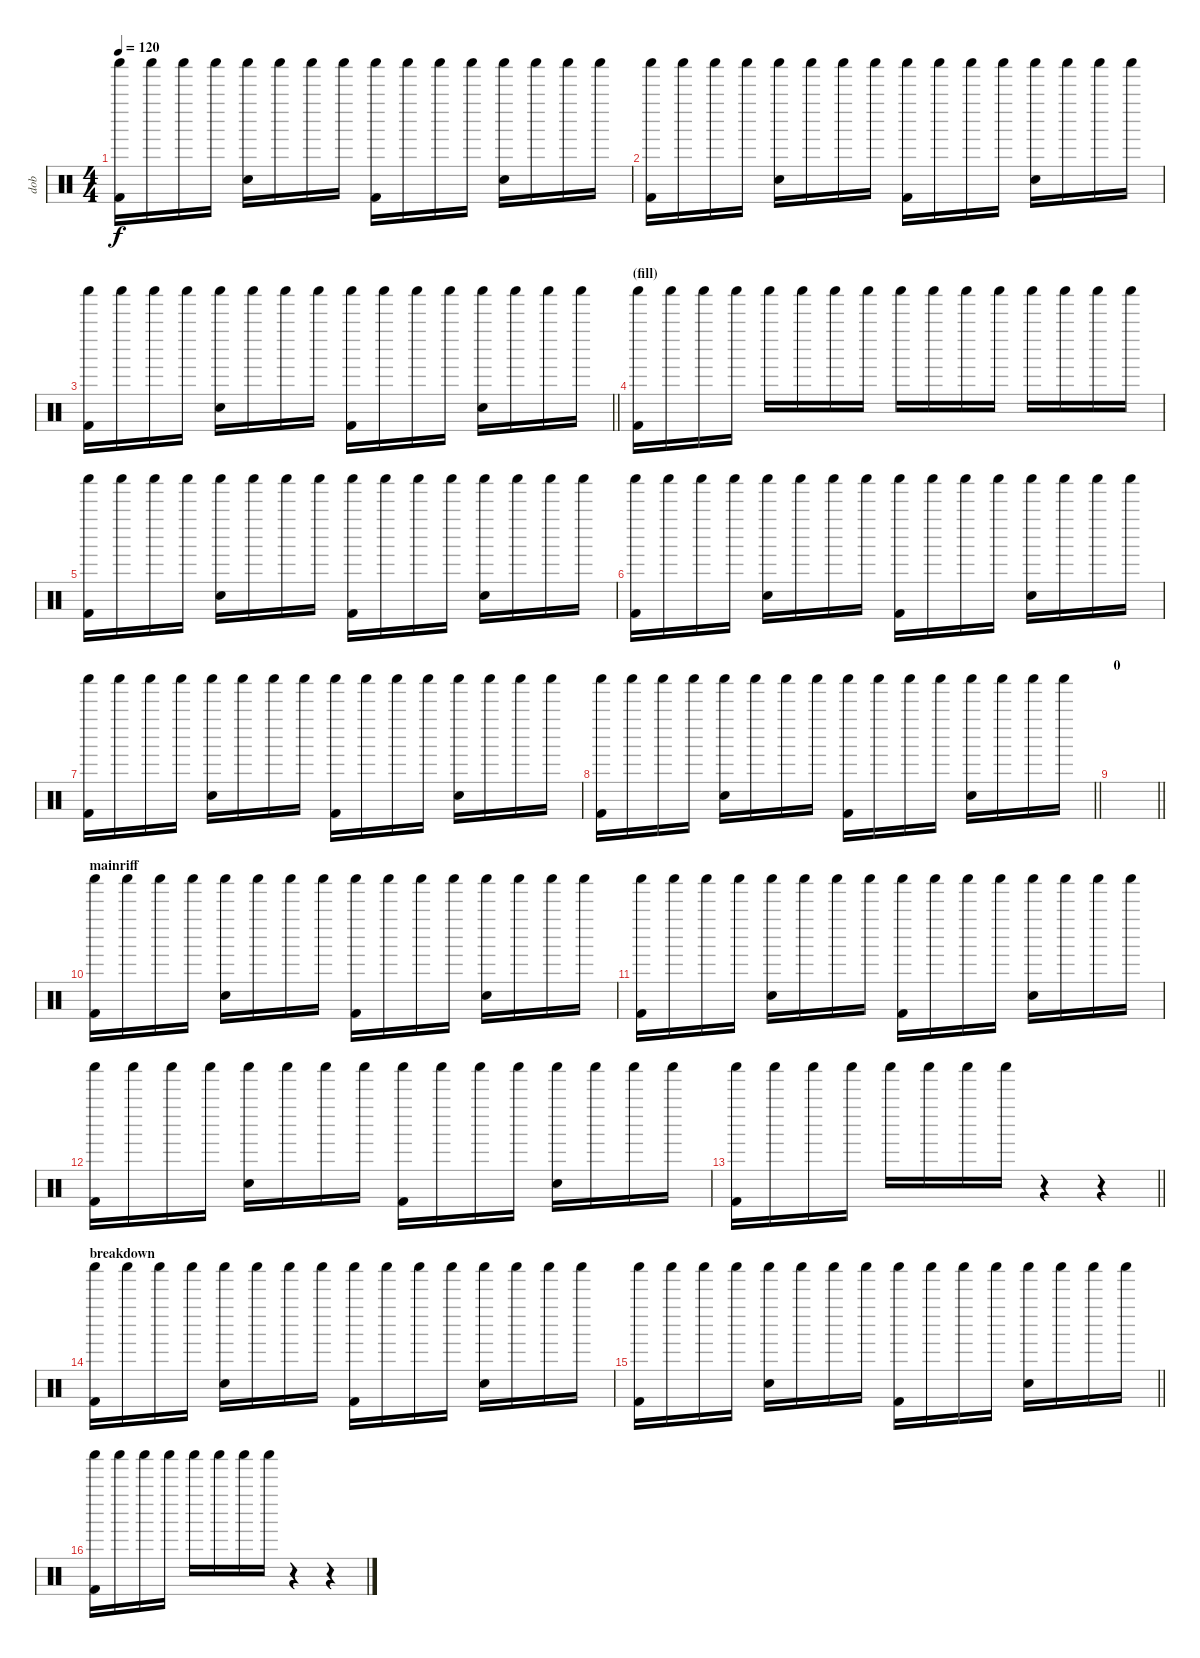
\track ("dob" "dob") {instrument percussion}
\staff {score}
\articulation defaults
\ts (4 4)
\tempo 120
\clef neutral
\ks c
("Kick (hit) 2" "Shaker (hit)").16{dy f} "Shaker (hit)".16 "Shaker (hit)".16 "Shaker (hit)".16 ("Electric Snare (hit)" "Shaker (hit)").16 "Shaker (hit)".16 "Shaker (hit)".16 "Shaker (hit)".16 ("Kick (hit) 2" "Shaker (hit)").16 "Shaker (hit)".16 "Shaker (hit)".16 "Shaker (hit)".16 ("Electric Snare (hit)" "Shaker (hit)").16 "Shaker (hit)".16 "Shaker (hit)".16 "Shaker (hit)".16 |
("Kick (hit) 2" "Shaker (hit)").16 "Shaker (hit)".16 "Shaker (hit)".16 "Shaker (hit)".16 ("Electric Snare (hit)" "Shaker (hit)").16 "Shaker (hit)".16 "Shaker (hit)".16 "Shaker (hit)".16 ("Kick (hit) 2" "Shaker (hit)").16 "Shaker (hit)".16 "Shaker (hit)".16 "Shaker (hit)".16 ("Electric Snare (hit)" "Shaker (hit)").16 "Shaker (hit)".16 "Shaker (hit)".16 "Shaker (hit)".16 |
\barLineRight lightlight
("Kick (hit) 2" "Shaker (hit)").16 "Shaker (hit)".16 "Shaker (hit)".16 "Shaker (hit)".16 ("Electric Snare (hit)" "Shaker (hit)").16 "Shaker (hit)".16 "Shaker (hit)".16 "Shaker (hit)".16 ("Kick (hit) 2" "Shaker (hit)").16 "Shaker (hit)".16 "Shaker (hit)".16 "Shaker (hit)".16 ("Electric Snare (hit)" "Shaker (hit)").16 "Shaker (hit)".16 "Shaker (hit)".16 "Shaker (hit)".16 |
\section ("" "(fill)")
("Kick (hit) 2" "Shaker (hit)").16 "Shaker (hit)".16 "Shaker (hit)".16 "Shaker (hit)".16 "Shaker (hit)".16 "Shaker (hit)".16 "Shaker (hit)".16 "Shaker (hit)".16 "Shaker (hit)".16 "Shaker (hit)".16 "Shaker (hit)".16 "Shaker (hit)".16 "Shaker (hit)".16 "Shaker (hit)".16 "Shaker (hit)".16 "Shaker (hit)".16 |
("Kick (hit) 2" "Shaker (hit)").16 "Shaker (hit)".16 "Shaker (hit)".16 "Shaker (hit)".16 ("Electric Snare (hit)" "Shaker (hit)").16 "Shaker (hit)".16 "Shaker (hit)".16 "Shaker (hit)".16 ("Kick (hit) 2" "Shaker (hit)").16 "Shaker (hit)".16 "Shaker (hit)".16 "Shaker (hit)".16 ("Electric Snare (hit)" "Shaker (hit)").16 "Shaker (hit)".16 "Shaker (hit)".16 "Shaker (hit)".16 |
("Kick (hit) 2" "Shaker (hit)").16 "Shaker (hit)".16 "Shaker (hit)".16 "Shaker (hit)".16 ("Electric Snare (hit)" "Shaker (hit)").16 "Shaker (hit)".16 "Shaker (hit)".16 "Shaker (hit)".16 ("Kick (hit) 2" "Shaker (hit)").16 "Shaker (hit)".16 "Shaker (hit)".16 "Shaker (hit)".16 ("Electric Snare (hit)" "Shaker (hit)").16 "Shaker (hit)".16 "Shaker (hit)".16 "Shaker (hit)".16 |
("Kick (hit) 2" "Shaker (hit)").16 "Shaker (hit)".16 "Shaker (hit)".16 "Shaker (hit)".16 ("Electric Snare (hit)" "Shaker (hit)").16 "Shaker (hit)".16 "Shaker (hit)".16 "Shaker (hit)".16 ("Kick (hit) 2" "Shaker (hit)").16 "Shaker (hit)".16 "Shaker (hit)".16 "Shaker (hit)".16 ("Electric Snare (hit)" "Shaker (hit)").16 "Shaker (hit)".16 "Shaker (hit)".16 "Shaker (hit)".16 |
\barLineRight lightlight
("Kick (hit) 2" "Shaker (hit)").16 "Shaker (hit)".16 "Shaker (hit)".16 "Shaker (hit)".16 ("Electric Snare (hit)" "Shaker (hit)").16 "Shaker (hit)".16 "Shaker (hit)".16 "Shaker (hit)".16 ("Kick (hit) 2" "Shaker (hit)").16 "Shaker (hit)".16 "Shaker (hit)".16 "Shaker (hit)".16 ("Electric Snare (hit)" "Shaker (hit)").16 "Shaker (hit)".16 "Shaker (hit)".16 "Shaker (hit)".16 |
\section ("" "0")
\barLineRight lightlight
|
\section ("" "mainriff")
("Kick (hit) 2" "Shaker (hit)").16 "Shaker (hit)".16 "Shaker (hit)".16 "Shaker (hit)".16 ("Electric Snare (hit)" "Shaker (hit)").16 "Shaker (hit)".16 "Shaker (hit)".16 "Shaker (hit)".16 ("Kick (hit) 2" "Shaker (hit)").16 "Shaker (hit)".16 "Shaker (hit)".16 "Shaker (hit)".16 ("Electric Snare (hit)" "Shaker (hit)").16 "Shaker (hit)".16 "Shaker (hit)".16 "Shaker (hit)".16 |
("Kick (hit) 2" "Shaker (hit)").16 "Shaker (hit)".16 "Shaker (hit)".16 "Shaker (hit)".16 ("Electric Snare (hit)" "Shaker (hit)").16 "Shaker (hit)".16 "Shaker (hit)".16 "Shaker (hit)".16 ("Kick (hit) 2" "Shaker (hit)").16 "Shaker (hit)".16 "Shaker (hit)".16 "Shaker (hit)".16 ("Electric Snare (hit)" "Shaker (hit)").16 "Shaker (hit)".16 "Shaker (hit)".16 "Shaker (hit)".16 |
("Kick (hit) 2" "Shaker (hit)").16 "Shaker (hit)".16 "Shaker (hit)".16 "Shaker (hit)".16 ("Electric Snare (hit)" "Shaker (hit)").16 "Shaker (hit)".16 "Shaker (hit)".16 "Shaker (hit)".16 ("Kick (hit) 2" "Shaker (hit)").16 "Shaker (hit)".16 "Shaker (hit)".16 "Shaker (hit)".16 ("Electric Snare (hit)" "Shaker (hit)").16 "Shaker (hit)".16 "Shaker (hit)".16 "Shaker (hit)".16 |
\barLineRight lightlight
("Kick (hit) 2" "Shaker (hit)").16 "Shaker (hit)".16 "Shaker (hit)".16 "Shaker (hit)".16 "Shaker (hit)".16 "Shaker (hit)".16 "Shaker (hit)".16 "Shaker (hit)".16 r.4 r.4 |
\section ("" "breakdown")
("Kick (hit) 2" "Shaker (hit)").16 "Shaker (hit)".16 "Shaker (hit)".16 "Shaker (hit)".16 ("Electric Snare (hit)" "Shaker (hit)").16 "Shaker (hit)".16 "Shaker (hit)".16 "Shaker (hit)".16 ("Kick (hit) 2" "Shaker (hit)").16 "Shaker (hit)".16 "Shaker (hit)".16 "Shaker (hit)".16 ("Electric Snare (hit)" "Shaker (hit)").16 "Shaker (hit)".16 "Shaker (hit)".16 "Shaker (hit)".16 |
\barLineRight lightlight
("Kick (hit) 2" "Shaker (hit)").16 "Shaker (hit)".16 "Shaker (hit)".16 "Shaker (hit)".16 ("Electric Snare (hit)" "Shaker (hit)").16 "Shaker (hit)".16 "Shaker (hit)".16 "Shaker (hit)".16 ("Kick (hit) 2" "Shaker (hit)").16 "Shaker (hit)".16 "Shaker (hit)".16 "Shaker (hit)".16 ("Electric Snare (hit)" "Shaker (hit)").16 "Shaker (hit)".16 "Shaker (hit)".16 "Shaker (hit)".16 |
("Kick (hit) 2" "Shaker (hit)").16 "Shaker (hit)".16 "Shaker (hit)".16 "Shaker (hit)".16 "Shaker (hit)".16 "Shaker (hit)".16 "Shaker (hit)".16 "Shaker (hit)".16 r.4 r.4
